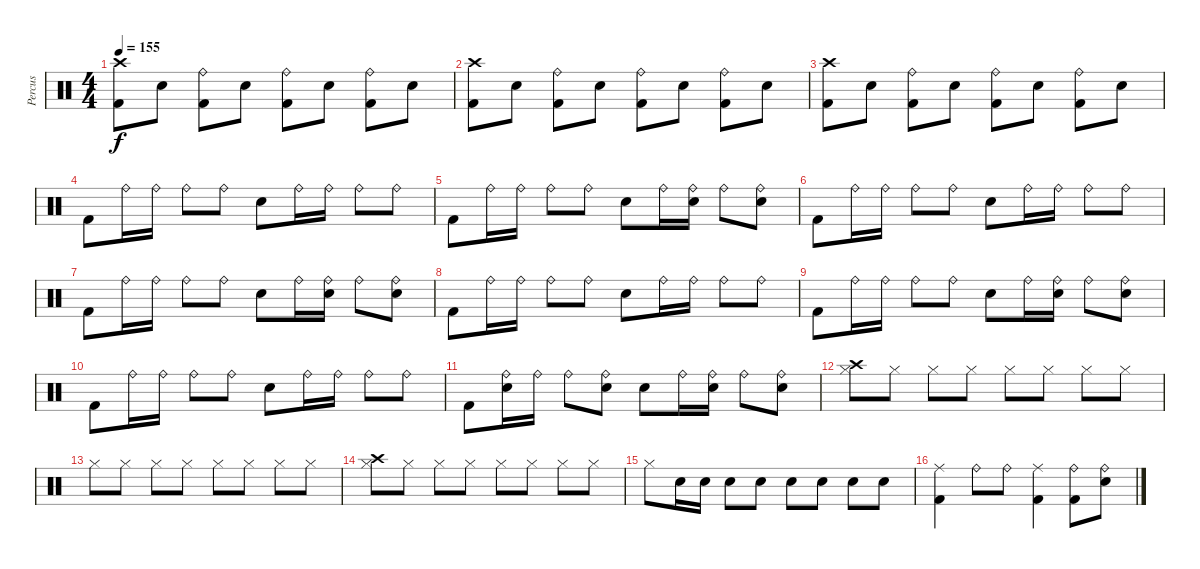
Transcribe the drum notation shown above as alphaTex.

\track ("Percus" "Percus") {instrument percussion}
\staff {score}
\articulation defaults
\ts (4 4)
\tempo 155
\clef neutral
\ks c
("Crash high (hit)" "Kick (hit) 2").8{dy f} "Snare (hit) 2".8 ("Ride (bell)" "Kick (hit) 2").8 "Snare (hit) 2".8 ("Ride (bell)" "Kick (hit) 2").8 "Snare (hit) 2".8 ("Ride (bell)" "Kick (hit) 2").8 "Snare (hit) 2".8 |
("Crash high (hit)" "Kick (hit) 2").8 "Snare (hit) 2".8 ("Ride (bell)" "Kick (hit) 2").8 "Snare (hit) 2".8 ("Ride (bell)" "Kick (hit) 2").8 "Snare (hit) 2".8 ("Ride (bell)" "Kick (hit) 2").8 "Snare (hit) 2".8 |
("Crash high (hit)" "Kick (hit) 2").8 "Snare (hit) 2".8 ("Ride (bell)" "Kick (hit) 2").8 "Snare (hit) 2".8 ("Ride (bell)" "Kick (hit) 2").8 "Snare (hit) 2".8 ("Ride (bell)" "Kick (hit) 2").8 "Snare (hit) 2".8 |
"Kick (hit) 2".8 "Ride (bell)".16 "Ride (bell)".16 "Ride (bell)".8 "Ride (bell)".8 "Snare (hit) 2".8 "Ride (bell)".16 "Ride (bell)".16 "Ride (bell)".8 "Ride (bell)".8 |
"Kick (hit) 2".8 "Ride (bell)".16 "Ride (bell)".16 "Ride (bell)".8 "Ride (bell)".8 "Snare (hit) 2".8 "Ride (bell)".16 ("Ride (bell)" "Snare (hit) 2").16 "Ride (bell)".8 ("Ride (bell)" "Snare (hit) 2").8 |
"Kick (hit) 2".8 "Ride (bell)".16 "Ride (bell)".16 "Ride (bell)".8 "Ride (bell)".8 "Snare (hit) 2".8 "Ride (bell)".16 "Ride (bell)".16 "Ride (bell)".8 "Ride (bell)".8 |
"Kick (hit) 2".8 "Ride (bell)".16 "Ride (bell)".16 "Ride (bell)".8 "Ride (bell)".8 "Snare (hit) 2".8 "Ride (bell)".16 ("Ride (bell)" "Snare (hit) 2").16 "Ride (bell)".8 ("Ride (bell)" "Snare (hit) 2").8 |
"Kick (hit) 2".8 "Ride (bell)".16 "Ride (bell)".16 "Ride (bell)".8 "Ride (bell)".8 "Snare (hit) 2".8 "Ride (bell)".16 "Ride (bell)".16 "Ride (bell)".8 "Ride (bell)".8 |
"Kick (hit) 2".8 "Ride (bell)".16 "Ride (bell)".16 "Ride (bell)".8 "Ride (bell)".8 "Snare (hit) 2".8 "Ride (bell)".16 ("Ride (bell)" "Snare (hit) 2").16 "Ride (bell)".8 ("Ride (bell)" "Snare (hit) 2").8 |
"Kick (hit) 2".8 "Ride (bell)".16 "Ride (bell)".16 "Ride (bell)".8 "Ride (bell)".8 "Snare (hit) 2".8 "Ride (bell)".16 "Ride (bell)".16 "Ride (bell)".8 "Ride (bell)".8 |
"Kick (hit) 2".8 ("Ride (bell)" "Snare (hit) 2").16 "Ride (bell)".16 "Ride (bell)".8 ("Ride (bell)" "Snare (hit) 2").8 "Snare (hit) 2".8 "Ride (bell)".16 ("Ride (bell)" "Snare (hit) 2").16 "Ride (bell)".8 ("Ride (bell)" "Snare (hit) 2").8 |
("Crash high (hit)" "Hi-Hat (closed)").8 "Hi-Hat (closed)".8 "Hi-Hat (closed)".8 "Hi-Hat (closed)".8 "Hi-Hat (closed)".8 "Hi-Hat (closed)".8 "Hi-Hat (closed)".8 "Hi-Hat (closed)".8 |
"Hi-Hat (closed)".8 "Hi-Hat (closed)".8 "Hi-Hat (closed)".8 "Hi-Hat (closed)".8 "Hi-Hat (closed)".8 "Hi-Hat (closed)".8 "Hi-Hat (closed)".8 "Hi-Hat (closed)".8 |
("Crash high (hit)" "Hi-Hat (closed)").8 "Hi-Hat (closed)".8 "Hi-Hat (closed)".8 "Hi-Hat (closed)".8 "Hi-Hat (closed)".8 "Hi-Hat (closed)".8 "Hi-Hat (closed)".8 "Hi-Hat (closed)".8 |
"Hi-Hat (closed)".8 "Snare (hit) 2".16 "Snare (hit) 2".16 "Snare (hit) 2".8 "Snare (hit) 2".8 "Snare (hit) 2".8 "Snare (hit) 2".8 "Snare (hit) 2".8 "Snare (hit) 2".8 |
("Ride (middle)" "Kick (hit) 2").4 "Ride (bell)".8 "Ride (bell)".8 ("Ride (middle)" "Kick (hit) 2").4 ("Ride (bell)" "Kick (hit) 2").8 ("Ride (bell)" "Snare (hit) 2").8
